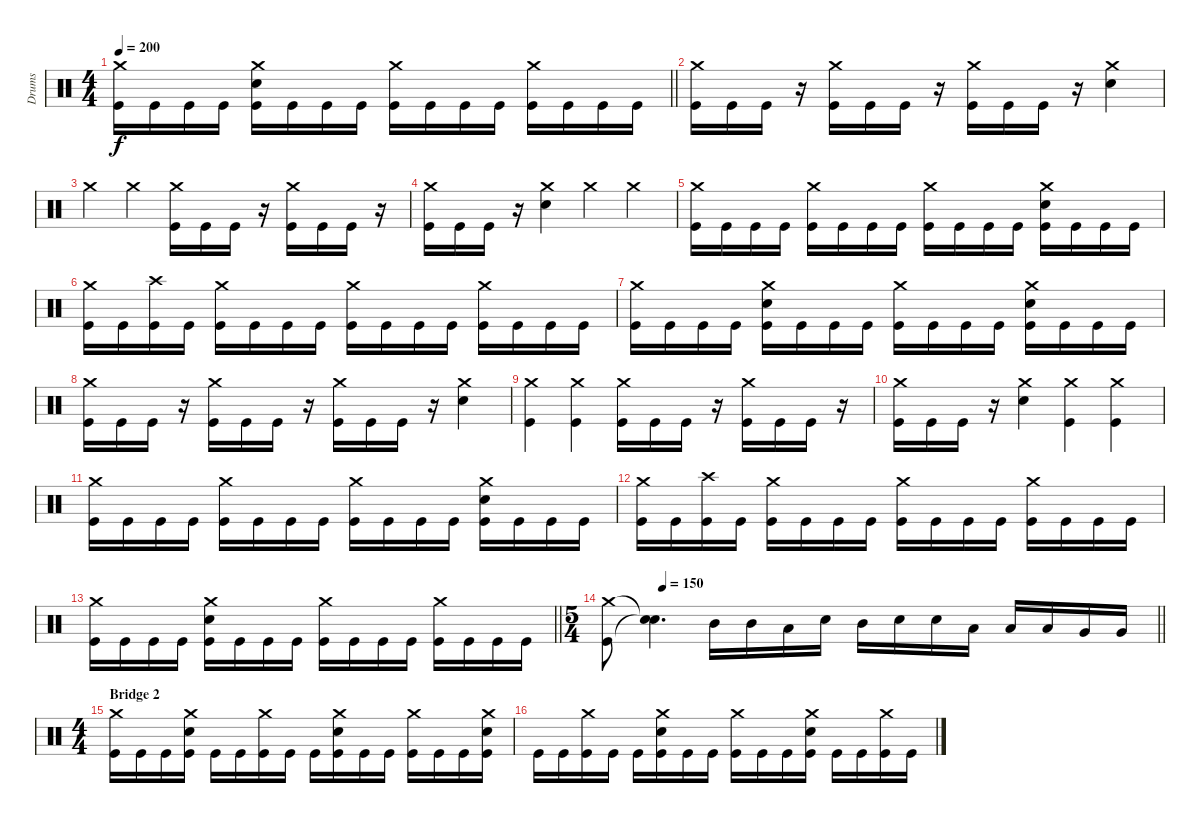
\track ("Drums" "Drums") {instrument percussion}
\staff {score}
\articulation defaults
\ts (4 4)
\tempo 200
\clef neutral
\barLineRight lightlight
\ks c
("Crash medium (hit)" "Kick (hit)").16{dy f} "Kick (hit)".16 "Kick (hit)".16 "Kick (hit)".16 ("Crash medium (hit)" "Snare (hit) 2" "Kick (hit)").16 "Kick (hit)".16 "Kick (hit)".16 "Kick (hit)".16 ("Crash medium (hit)" "Kick (hit)").16 "Kick (hit)".16 "Kick (hit)".16 "Kick (hit)".16 ("Crash medium (hit)" "Kick (hit)").16 "Kick (hit)".16 "Kick (hit)".16 "Kick (hit)".16 |
("Crash medium (hit)" "Kick (hit)").16 "Kick (hit)".16 "Kick (hit)".16 r.16 ("Crash medium (hit)" "Kick (hit)").16 "Kick (hit)".16 "Kick (hit)".16 r.16 ("Crash medium (hit)" "Kick (hit)").16 "Kick (hit)".16 "Kick (hit)".16 r.16 ("Crash medium (hit)" "Snare (hit) 2").4 |
"Crash medium (hit)".4 "Crash medium (hit)".4 ("Crash medium (hit)" "Kick (hit)").16 "Kick (hit)".16 "Kick (hit)".16 r.16 ("Crash medium (hit)" "Kick (hit)").16 "Kick (hit)".16 "Kick (hit)".16 r.16 |
("Crash medium (hit)" "Kick (hit)").16 "Kick (hit)".16 "Kick (hit)".16 r.16 ("Crash medium (hit)" "Snare (hit) 2").4 "Crash medium (hit)".4 "Crash medium (hit)".4 |
("Crash medium (hit)" "Kick (hit)").16 "Kick (hit)".16 "Kick (hit)".16 "Kick (hit)".16 ("Crash medium (hit)" "Kick (hit)").16 "Kick (hit)".16 "Kick (hit)".16 "Kick (hit)".16 ("Crash medium (hit)" "Kick (hit)").16 "Kick (hit)".16 "Kick (hit)".16 "Kick (hit)".16 ("Crash medium (hit)" "Snare (hit) 2" "Kick (hit)").16 "Kick (hit)".16 "Kick (hit)".16 "Kick (hit)".16 |
("Crash medium (hit)" "Kick (hit)").16 "Kick (hit)".16 ("Crash high (hit)" "Kick (hit)").16 "Kick (hit)".16 ("Crash medium (hit)" "Kick (hit)").16 "Kick (hit)".16 "Kick (hit)".16 "Kick (hit)".16 ("Crash medium (hit)" "Kick (hit)").16 "Kick (hit)".16 "Kick (hit)".16 "Kick (hit)".16 ("Crash medium (hit)" "Kick (hit)").16 "Kick (hit)".16 "Kick (hit)".16 "Kick (hit)".16 |
("Crash medium (hit)" "Kick (hit)").16 "Kick (hit)".16 "Kick (hit)".16 "Kick (hit)".16 ("Crash medium (hit)" "Snare (hit) 2" "Kick (hit)").16 "Kick (hit)".16 "Kick (hit)".16 "Kick (hit)".16 ("Crash medium (hit)" "Kick (hit)").16 "Kick (hit)".16 "Kick (hit)".16 "Kick (hit)".16 ("Crash medium (hit)" "Snare (hit) 2" "Kick (hit)").16 "Kick (hit)".16 "Kick (hit)".16 "Kick (hit)".16 |
("Crash medium (hit)" "Kick (hit)").16 "Kick (hit)".16 "Kick (hit)".16 r.16 ("Crash medium (hit)" "Kick (hit)").16 "Kick (hit)".16 "Kick (hit)".16 r.16 ("Crash medium (hit)" "Kick (hit)").16 "Kick (hit)".16 "Kick (hit)".16 r.16 ("Crash medium (hit)" "Snare (hit) 2").4 |
("Crash medium (hit)" "Kick (hit)").4 ("Crash medium (hit)" "Kick (hit)").4 ("Crash medium (hit)" "Kick (hit)").16 "Kick (hit)".16 "Kick (hit)".16 r.16 ("Crash medium (hit)" "Kick (hit)").16 "Kick (hit)".16 "Kick (hit)".16 r.16 |
("Crash medium (hit)" "Kick (hit)").16 "Kick (hit)".16 "Kick (hit)".16 r.16 ("Crash medium (hit)" "Snare (hit) 2").4 ("Crash medium (hit)" "Kick (hit)").4 ("Crash medium (hit)" "Kick (hit)").4 |
("Crash medium (hit)" "Kick (hit)").16 "Kick (hit)".16 "Kick (hit)".16 "Kick (hit)".16 ("Crash medium (hit)" "Kick (hit)").16 "Kick (hit)".16 "Kick (hit)".16 "Kick (hit)".16 ("Crash medium (hit)" "Kick (hit)").16 "Kick (hit)".16 "Kick (hit)".16 "Kick (hit)".16 ("Crash medium (hit)" "Snare (hit) 2" "Kick (hit)").16 "Kick (hit)".16 "Kick (hit)".16 "Kick (hit)".16 |
("Crash medium (hit)" "Kick (hit)").16 "Kick (hit)".16 ("Crash high (hit)" "Kick (hit)").16 "Kick (hit)".16 ("Crash medium (hit)" "Kick (hit)").16 "Kick (hit)".16 "Kick (hit)".16 "Kick (hit)".16 ("Crash medium (hit)" "Kick (hit)").16 "Kick (hit)".16 "Kick (hit)".16 "Kick (hit)".16 ("Crash medium (hit)" "Kick (hit)").16 "Kick (hit)".16 "Kick (hit)".16 "Kick (hit)".16 |
\barLineRight lightlight
("Crash medium (hit)" "Kick (hit)").16 "Kick (hit)".16 "Kick (hit)".16 "Kick (hit)".16 ("Crash medium (hit)" "Snare (hit) 2" "Kick (hit)").16 "Kick (hit)".16 "Kick (hit)".16 "Kick (hit)".16 ("Crash medium (hit)" "Kick (hit)").16 "Kick (hit)".16 "Kick (hit)".16 "Kick (hit)".16 ("Crash medium (hit)" "Kick (hit)").16 "Kick (hit)".16 "Kick (hit)".16 "Kick (hit)".16 |
\ts (5 4)
\tempo (150 0.1)
\barLineRight lightlight
("Crash medium (hit)" "Kick (hit)").8 ("Snare (hit)"{t} "Snare (hit)"{t}).4{d} "Mid Tom (hit)".16 "Mid Tom (hit)".16 "Low Tom (hit)".16 "Snare (hit) 2".16 "Mid Tom (hit)".16 "Snare (hit) 2".16 "Snare (hit) 2".16 "Low Tom (hit)".16 "Low Tom (hit)".16 "Low Tom (hit)".16 "Very Low Tom (hit)".16 "Very Low Tom (hit)".16 |
\ts (4 4)
\section ("" "Bridge 2")
("Crash medium (hit)" "Kick (hit)").16 "Kick (hit)".16 "Kick (hit)".16 ("Crash medium (hit)" "Snare (hit) 2" "Kick (hit)").16 "Kick (hit)".16 "Kick (hit)".16 ("Crash medium (hit)" "Kick (hit)").16 "Kick (hit)".16 "Kick (hit)".16 ("Crash medium (hit)" "Snare (hit) 2" "Kick (hit)").16 "Kick (hit)".16 "Kick (hit)".16 ("Crash medium (hit)" "Kick (hit)").16 "Kick (hit)".16 "Kick (hit)".16 ("Crash medium (hit)" "Snare (hit) 2" "Kick (hit)").16 |
"Kick (hit)".16 "Kick (hit)".16 ("Crash medium (hit)" "Kick (hit)").16 "Kick (hit)".16 "Kick (hit)".16 ("Crash medium (hit)" "Snare (hit) 2" "Kick (hit)").16 "Kick (hit)".16 "Kick (hit)".16 ("Crash medium (hit)" "Kick (hit)").16 "Kick (hit)".16 "Kick (hit)".16 ("Crash medium (hit)" "Snare (hit) 2" "Kick (hit)").16 "Kick (hit)".16 "Kick (hit)".16 ("Crash medium (hit)" "Kick (hit)").16 "Kick (hit)".16
